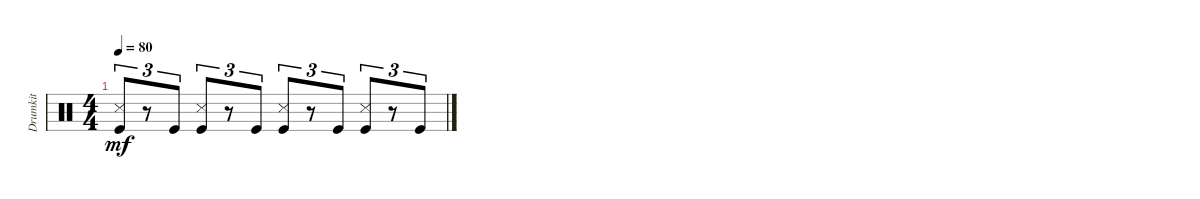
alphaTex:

\track ("Drumkit" "Drumkit") {instrument percussion}
\staff {score}
\articulation defaults
\ts (4 4)
\tempo 80
\clef neutral
\ks c
("Kick (hit)" "Snare (side stick) 3").8{tu (3 2) dy mf} r.8{tu (3 2)} "Kick (hit)".8{tu (3 2)} ("Kick (hit)" "Snare (side stick) 3").8{tu (3 2)} r.8{tu (3 2)} "Kick (hit)".8{tu (3 2)} ("Kick (hit)" "Snare (side stick) 3").8{tu (3 2)} r.8{tu (3 2)} "Kick (hit)".8{tu (3 2)} ("Kick (hit)" "Snare (side stick) 3").8{tu (3 2)} r.8{tu (3 2)} "Kick (hit)".8{tu (3 2)}
